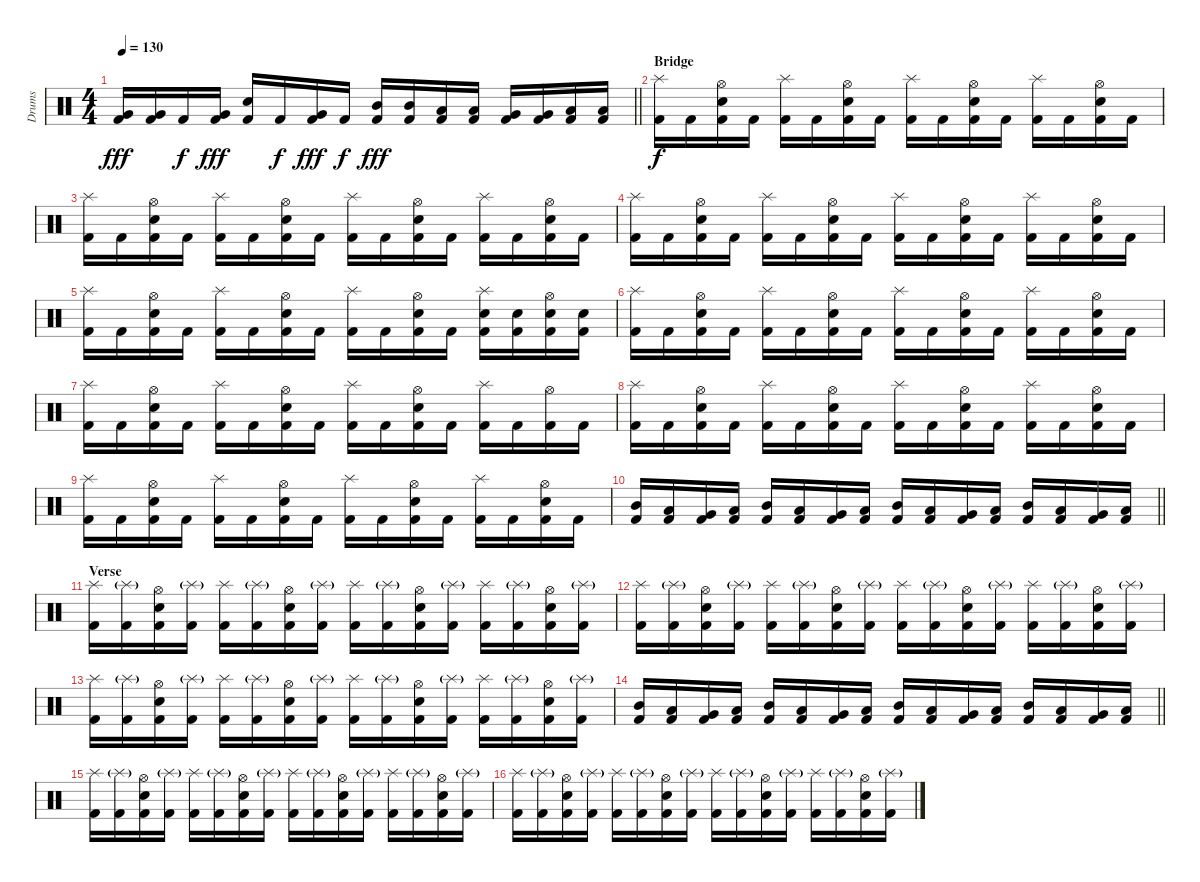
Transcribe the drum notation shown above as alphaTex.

\track ("Drums" "Drums") {instrument percussion}
\staff {score}
\articulation defaults
\ts (4 4)
\tempo 130
\clef neutral
\barLineRight lightlight
\ks c
("Very Low Tom (hit)" "Kick (hit) 2").16{dy fff} ("Very Low Tom (hit)" "Kick (hit) 2").16 "Kick (hit) 2".16{dy f} ("Very Low Tom (hit)" "Kick (hit) 2").16{dy fff} ("Electric Snare (hit)" "Kick (hit) 2").16 "Kick (hit) 2".16{dy f} ("Very Low Tom (hit)" "Kick (hit) 2").16{dy fff} "Kick (hit) 2".16{dy f} ("Mid Tom (hit)" "Kick (hit) 2").16{dy fff} ("Mid Tom (hit)" "Kick (hit) 2").16 ("Low Tom (hit)" "Kick (hit) 2").16 ("Low Tom (hit)" "Kick (hit) 2").16 ("Very Low Tom (hit)" "Kick (hit) 2").16 ("Very Low Tom (hit)" "Kick (hit) 2").16 ("Low Floor Tom (hit)" "Kick (hit) 2").16 ("Low Floor Tom (hit)" "Kick (hit) 2").16 |
\section ("" "Bridge")
("Splash (hit)" "Kick (hit) 2").16{dy f} "Kick (hit) 2".16 ("Hi-Hat (open)" "Electric Snare (hit)" "Kick (hit) 2").16 "Kick (hit) 2".16 ("Splash (hit)" "Kick (hit) 2").16 "Kick (hit) 2".16 ("Hi-Hat (open)" "Electric Snare (hit)" "Kick (hit) 2").16 "Kick (hit) 2".16 ("Splash (hit)" "Kick (hit) 2").16 "Kick (hit) 2".16 ("Hi-Hat (open)" "Electric Snare (hit)" "Kick (hit) 2").16 "Kick (hit) 2".16 ("Splash (hit)" "Kick (hit) 2").16 "Kick (hit) 2".16 ("Hi-Hat (open)" "Electric Snare (hit)" "Kick (hit) 2").16 "Kick (hit) 2".16 |
("Splash (hit)" "Kick (hit) 2").16 "Kick (hit) 2".16 ("Hi-Hat (open)" "Electric Snare (hit)" "Kick (hit) 2").16 "Kick (hit) 2".16 ("Splash (hit)" "Kick (hit) 2").16 "Kick (hit) 2".16 ("Hi-Hat (open)" "Electric Snare (hit)" "Kick (hit) 2").16 "Kick (hit) 2".16 ("Splash (hit)" "Kick (hit) 2").16 "Kick (hit) 2".16 ("Hi-Hat (open)" "Electric Snare (hit)" "Kick (hit) 2").16 "Kick (hit) 2".16 ("Splash (hit)" "Kick (hit) 2").16 "Kick (hit) 2".16 ("Hi-Hat (open)" "Electric Snare (hit)" "Kick (hit) 2").16 "Kick (hit) 2".16 |
("Splash (hit)" "Kick (hit) 2").16 "Kick (hit) 2".16 ("Hi-Hat (open)" "Electric Snare (hit)" "Kick (hit) 2").16 "Kick (hit) 2".16 ("Splash (hit)" "Kick (hit) 2").16 "Kick (hit) 2".16 ("Hi-Hat (open)" "Electric Snare (hit)" "Kick (hit) 2").16 "Kick (hit) 2".16 ("Splash (hit)" "Kick (hit) 2").16 "Kick (hit) 2".16 ("Hi-Hat (open)" "Electric Snare (hit)" "Kick (hit) 2").16 "Kick (hit) 2".16 ("Splash (hit)" "Kick (hit) 2").16 "Kick (hit) 2".16 ("Hi-Hat (open)" "Electric Snare (hit)" "Kick (hit) 2").16 "Kick (hit) 2".16 |
("Splash (hit)" "Kick (hit) 2").16 "Kick (hit) 2".16 ("Hi-Hat (open)" "Electric Snare (hit)" "Kick (hit) 2").16 "Kick (hit) 2".16 ("Splash (hit)" "Kick (hit) 2").16 "Kick (hit) 2".16 ("Hi-Hat (open)" "Electric Snare (hit)" "Kick (hit) 2").16 "Kick (hit) 2".16 ("Splash (hit)" "Kick (hit) 2").16 "Kick (hit) 2".16 ("Hi-Hat (open)" "Electric Snare (hit)" "Kick (hit) 2").16 "Kick (hit) 2".16 ("Splash (hit)" "Electric Snare (hit)" "Kick (hit) 2").16 ("Electric Snare (hit)" "Kick (hit) 2").16 ("Hi-Hat (open)" "Electric Snare (hit)" "Kick (hit) 2").16 ("Electric Snare (hit)" "Kick (hit) 2").16 |
("Splash (hit)" "Kick (hit) 2").16 "Kick (hit) 2".16 ("Hi-Hat (open)" "Electric Snare (hit)" "Kick (hit) 2").16 "Kick (hit) 2".16 ("Splash (hit)" "Kick (hit) 2").16 "Kick (hit) 2".16 ("Hi-Hat (open)" "Electric Snare (hit)" "Kick (hit) 2").16 "Kick (hit) 2".16 ("Splash (hit)" "Kick (hit) 2").16 "Kick (hit) 2".16 ("Hi-Hat (open)" "Electric Snare (hit)" "Kick (hit) 2").16 "Kick (hit) 2".16 ("Splash (hit)" "Kick (hit) 2").16 "Kick (hit) 2".16 ("Hi-Hat (open)" "Electric Snare (hit)" "Kick (hit) 2").16 "Kick (hit) 2".16 |
("Splash (hit)" "Kick (hit) 2").16 "Kick (hit) 2".16 ("Hi-Hat (open)" "Electric Snare (hit)" "Kick (hit) 2").16 "Kick (hit) 2".16 ("Splash (hit)" "Kick (hit) 2").16 "Kick (hit) 2".16 ("Hi-Hat (open)" "Electric Snare (hit)" "Kick (hit) 2").16 "Kick (hit) 2".16 ("Splash (hit)" "Kick (hit) 2").16 "Kick (hit) 2".16 ("Hi-Hat (open)" "Electric Snare (hit)" "Kick (hit) 2").16 "Kick (hit) 2".16 ("Splash (hit)" "Kick (hit) 2").16 "Kick (hit) 2".16 ("Hi-Hat (open)" "Kick (hit) 2").16 "Kick (hit) 2".16 |
("Splash (hit)" "Kick (hit) 2").16 "Kick (hit) 2".16 ("Hi-Hat (open)" "Electric Snare (hit)" "Kick (hit) 2").16 "Kick (hit) 2".16 ("Splash (hit)" "Kick (hit) 2").16 "Kick (hit) 2".16 ("Hi-Hat (open)" "Electric Snare (hit)" "Kick (hit) 2").16 "Kick (hit) 2".16 ("Splash (hit)" "Kick (hit) 2").16 "Kick (hit) 2".16 ("Hi-Hat (open)" "Electric Snare (hit)" "Kick (hit) 2").16 "Kick (hit) 2".16 ("Splash (hit)" "Kick (hit) 2").16 "Kick (hit) 2".16 ("Hi-Hat (open)" "Electric Snare (hit)" "Kick (hit) 2").16 "Kick (hit) 2".16 |
("Splash (hit)" "Kick (hit) 2").16 "Kick (hit) 2".16 ("Hi-Hat (open)" "Electric Snare (hit)" "Kick (hit) 2").16 "Kick (hit) 2".16 ("Splash (hit)" "Kick (hit) 2").16 "Kick (hit) 2".16 ("Hi-Hat (open)" "Electric Snare (hit)" "Kick (hit) 2").16 "Kick (hit) 2".16 ("Splash (hit)" "Kick (hit) 2").16 "Kick (hit) 2".16 ("Hi-Hat (open)" "Electric Snare (hit)" "Kick (hit) 2").16 "Kick (hit) 2".16 ("Splash (hit)" "Kick (hit) 2").16 "Kick (hit) 2".16 ("Hi-Hat (open)" "Electric Snare (hit)" "Kick (hit) 2").16 "Kick (hit) 2".16 |
\barLineRight lightlight
("Mid Tom (hit)" "Kick (hit) 2").16 ("Low Tom (hit)" "Kick (hit) 2").16 ("Very Low Tom (hit)" "Kick (hit) 2").16 ("Low Floor Tom (hit)" "Kick (hit) 2").16 ("Mid Tom (hit)" "Kick (hit) 2").16 ("Low Tom (hit)" "Kick (hit) 2").16 ("Very Low Tom (hit)" "Kick (hit) 2").16 ("Low Floor Tom (hit)" "Kick (hit) 2").16 ("Mid Tom (hit)" "Kick (hit) 2").16 ("Low Tom (hit)" "Kick (hit) 2").16 ("Very Low Tom (hit)" "Kick (hit) 2").16 ("Low Floor Tom (hit)" "Kick (hit) 2").16 ("Mid Tom (hit)" "Kick (hit) 2").16 ("Low Tom (hit)" "Kick (hit) 2").16 ("Very Low Tom (hit)" "Kick (hit) 2").16 ("Low Floor Tom (hit)" "Kick (hit) 2").16 |
\section ("" "Verse")
("Splash (hit)" "Kick (hit) 2").16 ("Splash (hit)"{g} "Kick (hit) 2").16 ("Hi-Hat (open)" "Electric Snare (hit)" "Kick (hit) 2").16 ("Splash (hit)"{g} "Kick (hit) 2").16 ("Splash (hit)" "Kick (hit) 2").16 ("Splash (hit)"{g} "Kick (hit) 2").16 ("Hi-Hat (open)" "Electric Snare (hit)" "Kick (hit) 2").16 ("Splash (hit)"{g} "Kick (hit) 2").16 ("Splash (hit)" "Kick (hit) 2").16 ("Splash (hit)"{g} "Kick (hit) 2").16 ("Hi-Hat (open)" "Electric Snare (hit)" "Kick (hit) 2").16 ("Splash (hit)"{g} "Kick (hit) 2").16 ("Splash (hit)" "Kick (hit) 2").16 ("Splash (hit)"{g} "Kick (hit) 2").16 ("Hi-Hat (open)" "Electric Snare (hit)" "Kick (hit) 2").16 ("Splash (hit)"{g} "Kick (hit) 2").16 |
("Splash (hit)" "Kick (hit) 2").16 ("Splash (hit)"{g} "Kick (hit) 2").16 ("Hi-Hat (open)" "Electric Snare (hit)" "Kick (hit) 2").16 ("Splash (hit)"{g} "Kick (hit) 2").16 ("Splash (hit)" "Kick (hit) 2").16 ("Splash (hit)"{g} "Kick (hit) 2").16 ("Hi-Hat (open)" "Electric Snare (hit)" "Kick (hit) 2").16 ("Splash (hit)"{g} "Kick (hit) 2").16 ("Splash (hit)" "Kick (hit) 2").16 ("Splash (hit)"{g} "Kick (hit) 2").16 ("Hi-Hat (open)" "Electric Snare (hit)" "Kick (hit) 2").16 ("Splash (hit)"{g} "Kick (hit) 2").16 ("Splash (hit)" "Kick (hit) 2").16 ("Splash (hit)"{g} "Kick (hit) 2").16 ("Hi-Hat (open)" "Electric Snare (hit)" "Kick (hit) 2").16 ("Splash (hit)"{g} "Kick (hit) 2").16 |
("Splash (hit)" "Kick (hit) 2").16 ("Splash (hit)"{g} "Kick (hit) 2").16 ("Hi-Hat (open)" "Electric Snare (hit)" "Kick (hit) 2").16 ("Splash (hit)"{g} "Kick (hit) 2").16 ("Splash (hit)" "Kick (hit) 2").16 ("Splash (hit)"{g} "Kick (hit) 2").16 ("Hi-Hat (open)" "Electric Snare (hit)" "Kick (hit) 2").16 ("Splash (hit)"{g} "Kick (hit) 2").16 ("Splash (hit)" "Kick (hit) 2").16 ("Splash (hit)"{g} "Kick (hit) 2").16 ("Hi-Hat (open)" "Electric Snare (hit)" "Kick (hit) 2").16 ("Splash (hit)"{g} "Kick (hit) 2").16 ("Splash (hit)" "Kick (hit) 2").16 ("Splash (hit)"{g} "Kick (hit) 2").16 ("Hi-Hat (open)" "Electric Snare (hit)" "Kick (hit) 2").16 ("Splash (hit)"{g} "Kick (hit) 2").16 |
\barLineRight lightlight
("Mid Tom (hit)" "Kick (hit) 2").16 ("Low Tom (hit)" "Kick (hit) 2").16 ("Very Low Tom (hit)" "Kick (hit) 2").16 ("Low Floor Tom (hit)" "Kick (hit) 2").16 ("Mid Tom (hit)" "Kick (hit) 2").16 ("Low Tom (hit)" "Kick (hit) 2").16 ("Very Low Tom (hit)" "Kick (hit) 2").16 ("Low Floor Tom (hit)" "Kick (hit) 2").16 ("Mid Tom (hit)" "Kick (hit) 2").16 ("Low Tom (hit)" "Kick (hit) 2").16 ("Very Low Tom (hit)" "Kick (hit) 2").16 ("Low Floor Tom (hit)" "Kick (hit) 2").16 ("Mid Tom (hit)" "Kick (hit) 2").16 ("Low Tom (hit)" "Kick (hit) 2").16 ("Very Low Tom (hit)" "Kick (hit) 2").16 ("Low Floor Tom (hit)" "Kick (hit) 2").16 |
("Splash (hit)" "Kick (hit) 2").16 ("Splash (hit)"{g} "Kick (hit) 2").16 ("Hi-Hat (open)" "Electric Snare (hit)" "Kick (hit) 2").16 ("Splash (hit)"{g} "Kick (hit) 2").16 ("Splash (hit)" "Kick (hit) 2").16 ("Splash (hit)"{g} "Kick (hit) 2").16 ("Hi-Hat (open)" "Electric Snare (hit)" "Kick (hit) 2").16 ("Splash (hit)"{g} "Kick (hit) 2").16 ("Splash (hit)" "Kick (hit) 2").16 ("Splash (hit)"{g} "Kick (hit) 2").16 ("Hi-Hat (open)" "Electric Snare (hit)" "Kick (hit) 2").16 ("Splash (hit)"{g} "Kick (hit) 2").16 ("Splash (hit)" "Kick (hit) 2").16 ("Splash (hit)"{g} "Kick (hit) 2").16 ("Hi-Hat (open)" "Electric Snare (hit)" "Kick (hit) 2").16 ("Splash (hit)"{g} "Kick (hit) 2").16 |
("Splash (hit)" "Kick (hit) 2").16 ("Splash (hit)"{g} "Kick (hit) 2").16 ("Hi-Hat (open)" "Electric Snare (hit)" "Kick (hit) 2").16 ("Splash (hit)"{g} "Kick (hit) 2").16 ("Splash (hit)" "Kick (hit) 2").16 ("Splash (hit)"{g} "Kick (hit) 2").16 ("Hi-Hat (open)" "Electric Snare (hit)" "Kick (hit) 2").16 ("Splash (hit)"{g} "Kick (hit) 2").16 ("Splash (hit)" "Kick (hit) 2").16 ("Splash (hit)"{g} "Kick (hit) 2").16 ("Hi-Hat (open)" "Electric Snare (hit)" "Kick (hit) 2").16 ("Splash (hit)"{g} "Kick (hit) 2").16 ("Splash (hit)" "Kick (hit) 2").16 ("Splash (hit)"{g} "Kick (hit) 2").16 ("Hi-Hat (open)" "Electric Snare (hit)" "Kick (hit) 2").16 ("Splash (hit)"{g} "Kick (hit) 2").16
